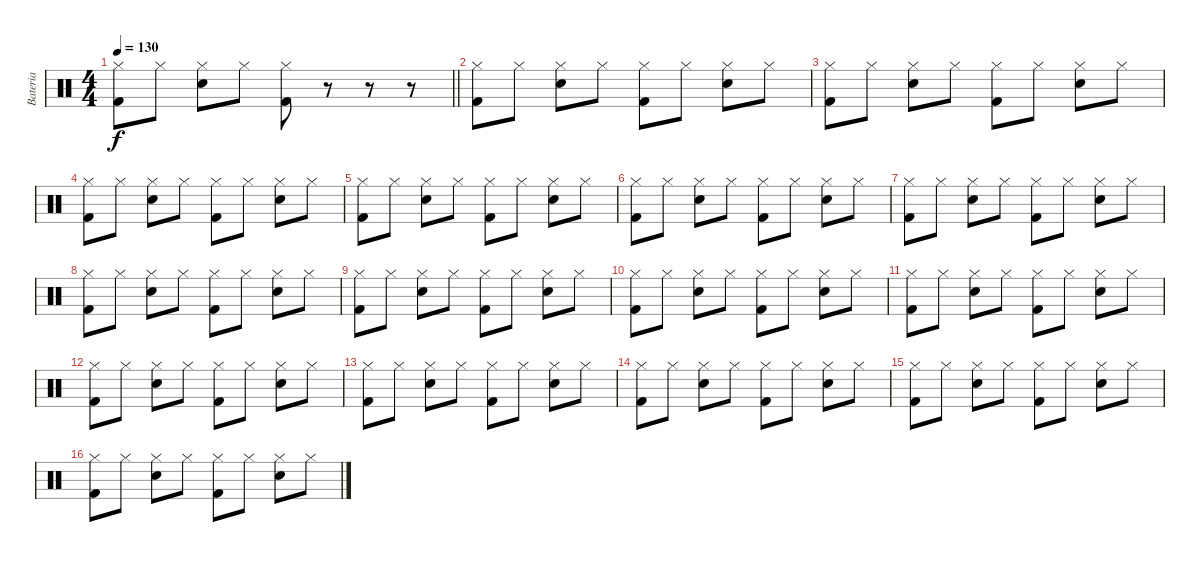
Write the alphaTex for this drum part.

\track ("Bateria" "Bateria") {instrument percussion}
\staff {score}
\articulation defaults
\ts (4 4)
\tempo 130
\clef neutral
\barLineRight lightlight
\ks c
("Hi-Hat (closed)" "Kick (hit) 2").8{dy f} "Hi-Hat (closed)".8 ("Hi-Hat (closed)" "Snare (hit) 2").8 "Hi-Hat (closed)".8 ("Hi-Hat (closed)" "Kick (hit) 2").8 r.8 r.8 r.8 |
("Hi-Hat (closed)" "Kick (hit) 2").8 "Hi-Hat (closed)".8 ("Hi-Hat (closed)" "Snare (hit) 2").8 "Hi-Hat (closed)".8 ("Hi-Hat (closed)" "Kick (hit) 2").8 "Hi-Hat (closed)".8 ("Hi-Hat (closed)" "Snare (hit) 2").8 "Hi-Hat (closed)".8 |
("Hi-Hat (closed)" "Kick (hit) 2").8 "Hi-Hat (closed)".8 ("Hi-Hat (closed)" "Snare (hit) 2").8 "Hi-Hat (closed)".8 ("Hi-Hat (closed)" "Kick (hit) 2").8 "Hi-Hat (closed)".8 ("Hi-Hat (closed)" "Snare (hit) 2").8 "Hi-Hat (closed)".8 |
("Hi-Hat (closed)" "Kick (hit) 2").8 "Hi-Hat (closed)".8 ("Hi-Hat (closed)" "Snare (hit) 2").8 "Hi-Hat (closed)".8 ("Hi-Hat (closed)" "Kick (hit) 2").8 "Hi-Hat (closed)".8 ("Hi-Hat (closed)" "Snare (hit) 2").8 "Hi-Hat (closed)".8 |
("Hi-Hat (closed)" "Kick (hit) 2").8 "Hi-Hat (closed)".8 ("Hi-Hat (closed)" "Snare (hit) 2").8 "Hi-Hat (closed)".8 ("Hi-Hat (closed)" "Kick (hit) 2").8 "Hi-Hat (closed)".8 ("Hi-Hat (closed)" "Snare (hit) 2").8 "Hi-Hat (closed)".8 |
("Hi-Hat (closed)" "Kick (hit) 2").8 "Hi-Hat (closed)".8 ("Hi-Hat (closed)" "Snare (hit) 2").8 "Hi-Hat (closed)".8 ("Hi-Hat (closed)" "Kick (hit) 2").8 "Hi-Hat (closed)".8 ("Hi-Hat (closed)" "Snare (hit) 2").8 "Hi-Hat (closed)".8 |
("Hi-Hat (closed)" "Kick (hit) 2").8 "Hi-Hat (closed)".8 ("Hi-Hat (closed)" "Snare (hit) 2").8 "Hi-Hat (closed)".8 ("Hi-Hat (closed)" "Kick (hit) 2").8 "Hi-Hat (closed)".8 ("Hi-Hat (closed)" "Snare (hit) 2").8 "Hi-Hat (closed)".8 |
("Hi-Hat (closed)" "Kick (hit) 2").8 "Hi-Hat (closed)".8 ("Hi-Hat (closed)" "Snare (hit) 2").8 "Hi-Hat (closed)".8 ("Hi-Hat (closed)" "Kick (hit) 2").8 "Hi-Hat (closed)".8 ("Hi-Hat (closed)" "Snare (hit) 2").8 "Hi-Hat (closed)".8 |
("Hi-Hat (closed)" "Kick (hit) 2").8 "Hi-Hat (closed)".8 ("Hi-Hat (closed)" "Snare (hit) 2").8 "Hi-Hat (closed)".8 ("Hi-Hat (closed)" "Kick (hit) 2").8 "Hi-Hat (closed)".8 ("Hi-Hat (closed)" "Snare (hit) 2").8 "Hi-Hat (closed)".8 |
("Hi-Hat (closed)" "Kick (hit) 2").8 "Hi-Hat (closed)".8 ("Hi-Hat (closed)" "Snare (hit) 2").8 "Hi-Hat (closed)".8 ("Hi-Hat (closed)" "Kick (hit) 2").8 "Hi-Hat (closed)".8 ("Hi-Hat (closed)" "Snare (hit) 2").8 "Hi-Hat (closed)".8 |
("Hi-Hat (closed)" "Kick (hit) 2").8 "Hi-Hat (closed)".8 ("Hi-Hat (closed)" "Snare (hit) 2").8 "Hi-Hat (closed)".8 ("Hi-Hat (closed)" "Kick (hit) 2").8 "Hi-Hat (closed)".8 ("Hi-Hat (closed)" "Snare (hit) 2").8 "Hi-Hat (closed)".8 |
("Hi-Hat (closed)" "Kick (hit) 2").8 "Hi-Hat (closed)".8 ("Hi-Hat (closed)" "Snare (hit) 2").8 "Hi-Hat (closed)".8 ("Hi-Hat (closed)" "Kick (hit) 2").8 "Hi-Hat (closed)".8 ("Hi-Hat (closed)" "Snare (hit) 2").8 "Hi-Hat (closed)".8 |
("Hi-Hat (closed)" "Kick (hit) 2").8 "Hi-Hat (closed)".8 ("Hi-Hat (closed)" "Snare (hit) 2").8 "Hi-Hat (closed)".8 ("Hi-Hat (closed)" "Kick (hit) 2").8 "Hi-Hat (closed)".8 ("Hi-Hat (closed)" "Snare (hit) 2").8 "Hi-Hat (closed)".8 |
("Hi-Hat (closed)" "Kick (hit) 2").8 "Hi-Hat (closed)".8 ("Hi-Hat (closed)" "Snare (hit) 2").8 "Hi-Hat (closed)".8 ("Hi-Hat (closed)" "Kick (hit) 2").8 "Hi-Hat (closed)".8 ("Hi-Hat (closed)" "Snare (hit) 2").8 "Hi-Hat (closed)".8 |
("Hi-Hat (closed)" "Kick (hit) 2").8 "Hi-Hat (closed)".8 ("Hi-Hat (closed)" "Snare (hit) 2").8 "Hi-Hat (closed)".8 ("Hi-Hat (closed)" "Kick (hit) 2").8 "Hi-Hat (closed)".8 ("Hi-Hat (closed)" "Snare (hit) 2").8 "Hi-Hat (closed)".8 |
("Hi-Hat (closed)" "Kick (hit) 2").8 "Hi-Hat (closed)".8 ("Hi-Hat (closed)" "Snare (hit) 2").8 "Hi-Hat (closed)".8 ("Hi-Hat (closed)" "Kick (hit) 2").8 "Hi-Hat (closed)".8 ("Hi-Hat (closed)" "Snare (hit) 2").8 "Hi-Hat (closed)".8
